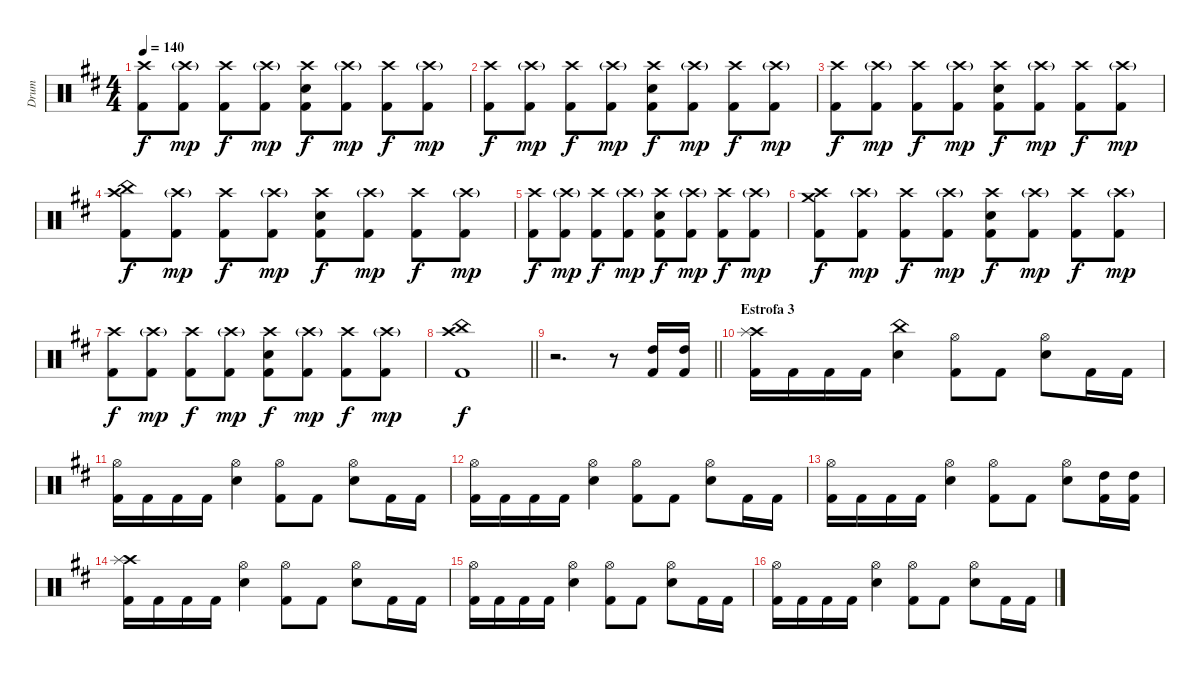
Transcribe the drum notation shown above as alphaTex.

\track ("Drum" "Drum") {instrument percussion}
\staff {score}
\articulation defaults
\ts (4 4)
\tempo 140
\clef neutral
\ks bminor
("Crash high (hit)" "Kick (hit) 2").8{dy f} ("Crash high (hit)"{g} "Kick (hit) 2").8{dy mp} ("Crash high (hit)" "Kick (hit) 2").8{dy f} ("Crash high (hit)"{g} "Kick (hit) 2").8{dy mp} ("Crash high (hit)" "Snare (hit) 2" "Kick (hit) 2").8{dy f} ("Crash high (hit)"{g} "Kick (hit) 2").8{dy mp} ("Crash high (hit)" "Kick (hit) 2").8{dy f} ("Crash high (hit)"{g} "Kick (hit) 2").8{dy mp} |
("Crash high (hit)" "Kick (hit) 2").8{dy f} ("Crash high (hit)"{g} "Kick (hit) 2").8{dy mp} ("Crash high (hit)" "Kick (hit) 2").8{dy f} ("Crash high (hit)"{g} "Kick (hit) 2").8{dy mp} ("Crash high (hit)" "Snare (hit) 2" "Kick (hit) 2").8{dy f} ("Crash high (hit)"{g} "Kick (hit) 2").8{dy mp} ("Crash high (hit)" "Kick (hit) 2").8{dy f} ("Crash high (hit)"{g} "Kick (hit) 2").8{dy mp} |
("Crash high (hit)" "Kick (hit) 2").8{dy f} ("Crash high (hit)"{g} "Kick (hit) 2").8{dy mp} ("Crash high (hit)" "Kick (hit) 2").8{dy f} ("Crash high (hit)"{g} "Kick (hit) 2").8{dy mp} ("Crash high (hit)" "Snare (hit) 2" "Kick (hit) 2").8{dy f} ("Crash high (hit)"{g} "Kick (hit) 2").8{dy mp} ("Crash high (hit)" "Kick (hit) 2").8{dy f} ("Crash high (hit)"{g} "Kick (hit) 2").8{dy mp} |
("Crash high (hit)" "China (hit)" "Kick (hit) 2").8{dy f} ("Crash high (hit)"{g} "Kick (hit) 2").8{dy mp} ("Crash high (hit)" "Kick (hit) 2").8{dy f} ("Crash high (hit)"{g} "Kick (hit) 2").8{dy mp} ("Crash high (hit)" "Snare (hit) 2" "Kick (hit) 2").8{dy f} ("Crash high (hit)"{g} "Kick (hit) 2").8{dy mp} ("Crash high (hit)" "Kick (hit) 2").8{dy f} ("Crash high (hit)"{g} "Kick (hit) 2").8{dy mp} |
("Crash high (hit)" "Kick (hit) 2").8{dy f} ("Crash high (hit)"{g} "Kick (hit) 2").8{dy mp} ("Crash high (hit)" "Kick (hit) 2").8{dy f} ("Crash high (hit)"{g} "Kick (hit) 2").8{dy mp} ("Crash high (hit)" "Snare (hit) 2" "Kick (hit) 2").8{dy f} ("Crash high (hit)"{g} "Kick (hit) 2").8{dy mp} ("Crash high (hit)" "Kick (hit) 2").8{dy f} ("Crash high (hit)"{g} "Kick (hit) 2").8{dy mp} |
("Crash high (hit)" "Crash medium (hit)" "Kick (hit) 2").8{dy f} ("Crash high (hit)"{g} "Kick (hit) 2").8{dy mp} ("Crash high (hit)" "Kick (hit) 2").8{dy f} ("Crash high (hit)"{g} "Kick (hit) 2").8{dy mp} ("Crash high (hit)" "Snare (hit) 2" "Kick (hit) 2").8{dy f} ("Crash high (hit)"{g} "Kick (hit) 2").8{dy mp} ("Crash high (hit)" "Kick (hit) 2").8{dy f} ("Crash high (hit)"{g} "Kick (hit) 2").8{dy mp} |
("Crash high (hit)" "Kick (hit) 2").8{dy f} ("Crash high (hit)"{g} "Kick (hit) 2").8{dy mp} ("Crash high (hit)" "Kick (hit) 2").8{dy f} ("Crash high (hit)"{g} "Kick (hit) 2").8{dy mp} ("Crash high (hit)" "Snare (hit) 2" "Kick (hit) 2").8{dy f} ("Crash high (hit)"{g} "Kick (hit) 2").8{dy mp} ("Crash high (hit)" "Kick (hit) 2").8{dy f} ("Crash high (hit)"{g} "Kick (hit) 2").8{dy mp} |
\barLineRight lightlight
("Crash high (hit)" "China (hit)" "Kick (hit) 2").1{dy f} |
\barLineRight lightlight
r.2{d} r.8 ("High Tom (hit)" "Kick (hit) 2").16 ("High Tom (hit)" "Kick (hit) 2").16 |
\section ("" "Estrofa 3")
("Crash high (hit)" "Splash (hit)" "Kick (hit) 2").16 "Kick (hit) 2".16 "Kick (hit) 2".16 "Kick (hit) 2".16 ("China (hit)" "Snare (hit) 2").4 ("Hi-Hat (open)" "Kick (hit) 2").8 "Kick (hit) 2".8 ("Hi-Hat (open)" "Snare (hit) 2").8 "Kick (hit) 2".16 "Kick (hit) 2".16 |
("Hi-Hat (open)" "Kick (hit) 2").16 "Kick (hit) 2".16 "Kick (hit) 2".16 "Kick (hit) 2".16 ("Hi-Hat (open)" "Snare (hit) 2").4 ("Hi-Hat (open)" "Kick (hit) 2").8 "Kick (hit) 2".8 ("Hi-Hat (open)" "Snare (hit) 2").8 "Kick (hit) 2".16 "Kick (hit) 2".16 |
("Hi-Hat (open)" "Kick (hit) 2").16 "Kick (hit) 2".16 "Kick (hit) 2".16 "Kick (hit) 2".16 ("Hi-Hat (open)" "Snare (hit) 2").4 ("Hi-Hat (open)" "Kick (hit) 2").8 "Kick (hit) 2".8 ("Hi-Hat (open)" "Snare (hit) 2").8 "Kick (hit) 2".16 "Kick (hit) 2".16 |
("Hi-Hat (open)" "Kick (hit) 2").16 "Kick (hit) 2".16 "Kick (hit) 2".16 "Kick (hit) 2".16 ("Hi-Hat (open)" "Snare (hit) 2").4 ("Hi-Hat (open)" "Kick (hit) 2").8 "Kick (hit) 2".8 ("Hi-Hat (open)" "Snare (hit) 2").8 ("High Tom (hit)" "Kick (hit) 2").16 ("High Tom (hit)" "Kick (hit) 2").16 |
("Crash high (hit)" "Splash (hit)" "Kick (hit) 2").16 "Kick (hit) 2".16 "Kick (hit) 2".16 "Kick (hit) 2".16 ("Hi-Hat (open)" "Snare (hit) 2").4 ("Hi-Hat (open)" "Kick (hit) 2").8 "Kick (hit) 2".8 ("Hi-Hat (open)" "Snare (hit) 2").8 "Kick (hit) 2".16 "Kick (hit) 2".16 |
("Hi-Hat (open)" "Kick (hit) 2").16 "Kick (hit) 2".16 "Kick (hit) 2".16 "Kick (hit) 2".16 ("Hi-Hat (open)" "Snare (hit) 2").4 ("Hi-Hat (open)" "Kick (hit) 2").8 "Kick (hit) 2".8 ("Hi-Hat (open)" "Snare (hit) 2").8 "Kick (hit) 2".16 "Kick (hit) 2".16 |
("Hi-Hat (open)" "Kick (hit) 2").16 "Kick (hit) 2".16 "Kick (hit) 2".16 "Kick (hit) 2".16 ("Hi-Hat (open)" "Snare (hit) 2").4 ("Hi-Hat (open)" "Kick (hit) 2").8 "Kick (hit) 2".8 ("Hi-Hat (open)" "Snare (hit) 2").8 "Kick (hit) 2".16 "Kick (hit) 2".16
